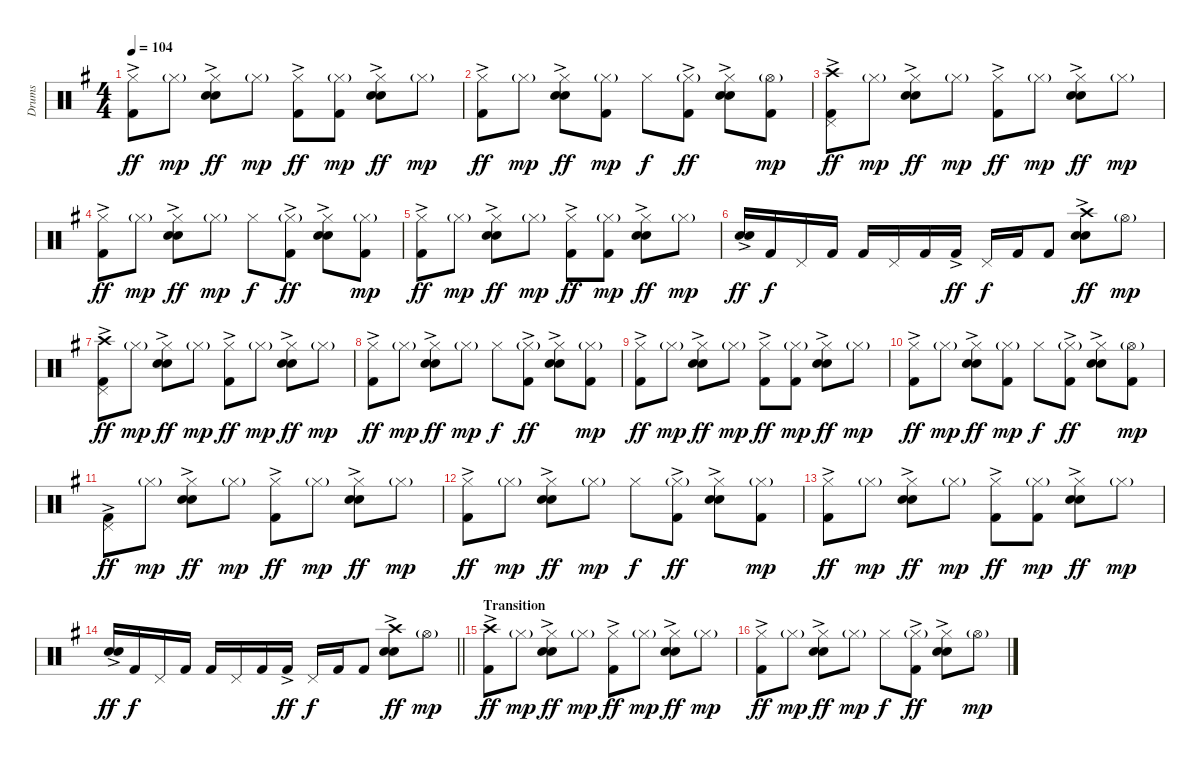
\track ("Drums" "Drums") {instrument percussion}
\staff {score}
\articulation defaults
\ts (4 4)
\tempo 104
\clef neutral
\ks g
("Hi-Hat (closed)" "Kick (hit) 2"{ac}).8{dy ff} "Hi-Hat (closed)"{g}.8{dy mp} ("Hi-Hat (closed)" "Electric Snare (hit)"{ac} "Snare (hit) 2").8{dy ff} "Hi-Hat (closed)"{g}.8{dy mp} ("Hi-Hat (closed)" "Kick (hit) 2"{ac}).8{dy ff} ("Hi-Hat (closed)"{g} "Kick (hit) 2").8{dy mp} ("Hi-Hat (closed)" "Electric Snare (hit)"{ac} "Snare (hit) 2").8{dy ff} "Hi-Hat (closed)"{g}.8{dy mp} |
("Hi-Hat (closed)" "Kick (hit) 2"{ac}).8{dy ff} "Hi-Hat (closed)"{g}.8{dy mp} ("Hi-Hat (closed)" "Electric Snare (hit)"{ac} "Snare (hit) 2").8{dy ff} ("Hi-Hat (closed)"{g} "Kick (hit) 2").8{dy mp} "Hi-Hat (closed)".8{dy f} ("Hi-Hat (closed)"{g} "Kick (hit) 2"{ac}).8{dy ff} ("Hi-Hat (closed)" "Electric Snare (hit)"{ac} "Snare (hit) 2").8 ("Hi-Hat (open)"{g} "Kick (hit) 2").8{dy mp} |
("Pedal Hi-Hat (hit)" "Crash high (hit)" "Kick (hit) 2"{ac}).8{dy ff} "Hi-Hat (closed)"{g}.8{dy mp} ("Hi-Hat (closed)" "Electric Snare (hit)"{ac} "Snare (hit) 2").8{dy ff} "Hi-Hat (closed)"{g}.8{dy mp} ("Hi-Hat (closed)" "Kick (hit) 2"{ac}).8{dy ff} "Hi-Hat (closed)"{g}.8{dy mp} ("Hi-Hat (closed)" "Electric Snare (hit)"{ac} "Snare (hit) 2").8{dy ff} "Hi-Hat (closed)"{g}.8{dy mp} |
("Hi-Hat (closed)" "Kick (hit) 2"{ac}).8{dy ff} "Hi-Hat (closed)"{g}.8{dy mp} ("Hi-Hat (closed)" "Electric Snare (hit)"{ac} "Snare (hit) 2").8{dy ff} "Hi-Hat (closed)"{g}.8{dy mp} "Hi-Hat (closed)".8{dy f} ("Hi-Hat (closed)"{g} "Kick (hit) 2"{ac}).8{dy ff} ("Hi-Hat (closed)" "Electric Snare (hit)"{ac} "Snare (hit) 2").8 ("Hi-Hat (closed)"{g} "Kick (hit) 2").8{dy mp} |
("Hi-Hat (closed)" "Kick (hit) 2"{ac}).8{dy ff} "Hi-Hat (closed)"{g}.8{dy mp} ("Hi-Hat (closed)" "Electric Snare (hit)"{ac} "Snare (hit) 2").8{dy ff} "Hi-Hat (closed)"{g}.8{dy mp} ("Hi-Hat (closed)" "Kick (hit) 2"{ac}).8{dy ff} ("Hi-Hat (closed)"{g} "Kick (hit) 2").8{dy mp} ("Hi-Hat (closed)" "Electric Snare (hit)"{ac} "Snare (hit) 2").8{dy ff} "Hi-Hat (closed)"{g}.8{dy mp} |
("Electric Snare (hit)"{ac} "Snare (hit) 2").16{dy ff} "Kick (hit) 2".16{dy f} "Pedal Hi-Hat (hit)".16 "Kick (hit) 2".16 "Kick (hit) 2".16 "Pedal Hi-Hat (hit)".16 "Kick (hit) 2".16 "Kick (hit) 2"{ac}.16{dy ff} "Pedal Hi-Hat (hit)".16{dy f} "Kick (hit) 2".16 "Kick (hit) 2".8 ("Crash high (hit)" "Electric Snare (hit)"{ac} "Snare (hit) 2").8{dy ff} "Hi-Hat (open)"{g}.8{dy mp} |
("Pedal Hi-Hat (hit)" "Crash high (hit)" "Kick (hit) 2"{ac}).8{dy ff} "Hi-Hat (closed)"{g}.8{dy mp} ("Hi-Hat (closed)" "Electric Snare (hit)"{ac} "Snare (hit) 2").8{dy ff} "Hi-Hat (closed)"{g}.8{dy mp} ("Hi-Hat (closed)" "Kick (hit) 2"{ac}).8{dy ff} "Hi-Hat (closed)"{g}.8{dy mp} ("Hi-Hat (closed)" "Electric Snare (hit)"{ac} "Snare (hit) 2").8{dy ff} "Hi-Hat (closed)"{g}.8{dy mp} |
("Hi-Hat (closed)" "Kick (hit) 2"{ac}).8{dy ff} "Hi-Hat (closed)"{g}.8{dy mp} ("Hi-Hat (closed)" "Electric Snare (hit)"{ac} "Snare (hit) 2").8{dy ff} "Hi-Hat (closed)"{g}.8{dy mp} "Hi-Hat (closed)".8{dy f} ("Hi-Hat (closed)"{g} "Kick (hit) 2"{ac}).8{dy ff} ("Hi-Hat (closed)" "Electric Snare (hit)"{ac} "Snare (hit) 2").8 ("Hi-Hat (closed)"{g} "Kick (hit) 2").8{dy mp} |
("Hi-Hat (closed)" "Kick (hit) 2"{ac}).8{dy ff} "Hi-Hat (closed)"{g}.8{dy mp} ("Hi-Hat (closed)" "Electric Snare (hit)"{ac} "Snare (hit) 2").8{dy ff} "Hi-Hat (closed)"{g}.8{dy mp} ("Hi-Hat (closed)" "Kick (hit) 2"{ac}).8{dy ff} ("Hi-Hat (closed)"{g} "Kick (hit) 2").8{dy mp} ("Hi-Hat (closed)" "Electric Snare (hit)"{ac} "Snare (hit) 2").8{dy ff} "Hi-Hat (closed)"{g}.8{dy mp} |
("Hi-Hat (closed)" "Kick (hit) 2"{ac}).8{dy ff} "Hi-Hat (closed)"{g}.8{dy mp} ("Hi-Hat (closed)" "Electric Snare (hit)"{ac} "Snare (hit) 2").8{dy ff} ("Hi-Hat (closed)"{g} "Kick (hit) 2").8{dy mp} "Hi-Hat (closed)".8{dy f} ("Hi-Hat (closed)"{g} "Kick (hit) 2"{ac}).8{dy ff} ("Hi-Hat (closed)" "Electric Snare (hit)"{ac} "Snare (hit) 2").8 ("Hi-Hat (open)"{g} "Kick (hit) 2").8{dy mp} |
("Pedal Hi-Hat (hit)" "Kick (hit) 2"{ac}).8{dy ff} "Hi-Hat (closed)"{g}.8{dy mp} ("Hi-Hat (closed)" "Electric Snare (hit)"{ac} "Snare (hit) 2").8{dy ff} "Hi-Hat (closed)"{g}.8{dy mp} ("Hi-Hat (closed)" "Kick (hit) 2"{ac}).8{dy ff} "Hi-Hat (closed)"{g}.8{dy mp} ("Hi-Hat (closed)" "Electric Snare (hit)"{ac} "Snare (hit) 2").8{dy ff} "Hi-Hat (closed)"{g}.8{dy mp} |
("Hi-Hat (closed)" "Kick (hit) 2"{ac}).8{dy ff} "Hi-Hat (closed)"{g}.8{dy mp} ("Hi-Hat (closed)" "Electric Snare (hit)"{ac} "Snare (hit) 2").8{dy ff} "Hi-Hat (closed)"{g}.8{dy mp} "Hi-Hat (closed)".8{dy f} ("Hi-Hat (closed)"{g} "Kick (hit) 2"{ac}).8{dy ff} ("Hi-Hat (closed)" "Electric Snare (hit)"{ac} "Snare (hit) 2").8 ("Hi-Hat (closed)"{g} "Kick (hit) 2").8{dy mp} |
("Hi-Hat (closed)" "Kick (hit) 2"{ac}).8{dy ff} "Hi-Hat (closed)"{g}.8{dy mp} ("Hi-Hat (closed)" "Electric Snare (hit)"{ac} "Snare (hit) 2").8{dy ff} "Hi-Hat (closed)"{g}.8{dy mp} ("Hi-Hat (closed)" "Kick (hit) 2"{ac}).8{dy ff} ("Hi-Hat (closed)"{g} "Kick (hit) 2").8{dy mp} ("Hi-Hat (closed)" "Electric Snare (hit)"{ac} "Snare (hit) 2").8{dy ff} "Hi-Hat (closed)"{g}.8{dy mp} |
\barLineRight lightlight
("Electric Snare (hit)"{ac} "Snare (hit) 2").16{dy ff} "Kick (hit) 2".16{dy f} "Pedal Hi-Hat (hit)".16 "Kick (hit) 2".16 "Kick (hit) 2".16 "Pedal Hi-Hat (hit)".16 "Kick (hit) 2".16 "Kick (hit) 2"{ac}.16{dy ff} "Pedal Hi-Hat (hit)".16{dy f} "Kick (hit) 2".16 "Kick (hit) 2".8 ("Crash high (hit)" "Electric Snare (hit)"{ac} "Snare (hit) 2").8{dy ff} "Hi-Hat (open)"{g}.8{dy mp} |
\section ("" "Transition")
("Crash high (hit)" "Kick (hit) 2"{ac}).8{dy ff} "Hi-Hat (closed)"{g}.8{dy mp} ("Hi-Hat (closed)" "Electric Snare (hit)"{ac} "Snare (hit) 2").8{dy ff} "Hi-Hat (closed)"{g}.8{dy mp} ("Hi-Hat (closed)" "Kick (hit) 2"{ac}).8{dy ff} "Hi-Hat (closed)"{g}.8{dy mp} ("Hi-Hat (closed)" "Electric Snare (hit)"{ac} "Snare (hit) 2").8{dy ff} "Hi-Hat (closed)"{g}.8{dy mp} |
("Hi-Hat (closed)" "Kick (hit) 2"{ac}).8{dy ff} "Hi-Hat (closed)"{g}.8{dy mp} ("Hi-Hat (closed)" "Electric Snare (hit)"{ac} "Snare (hit) 2").8{dy ff} "Hi-Hat (closed)"{g}.8{dy mp} "Hi-Hat (closed)".8{dy f} ("Hi-Hat (closed)"{g} "Kick (hit) 2"{ac}).8{dy ff} ("Hi-Hat (closed)" "Electric Snare (hit)"{ac} "Snare (hit) 2").8 "Hi-Hat (open)"{g}.8{dy mp}
